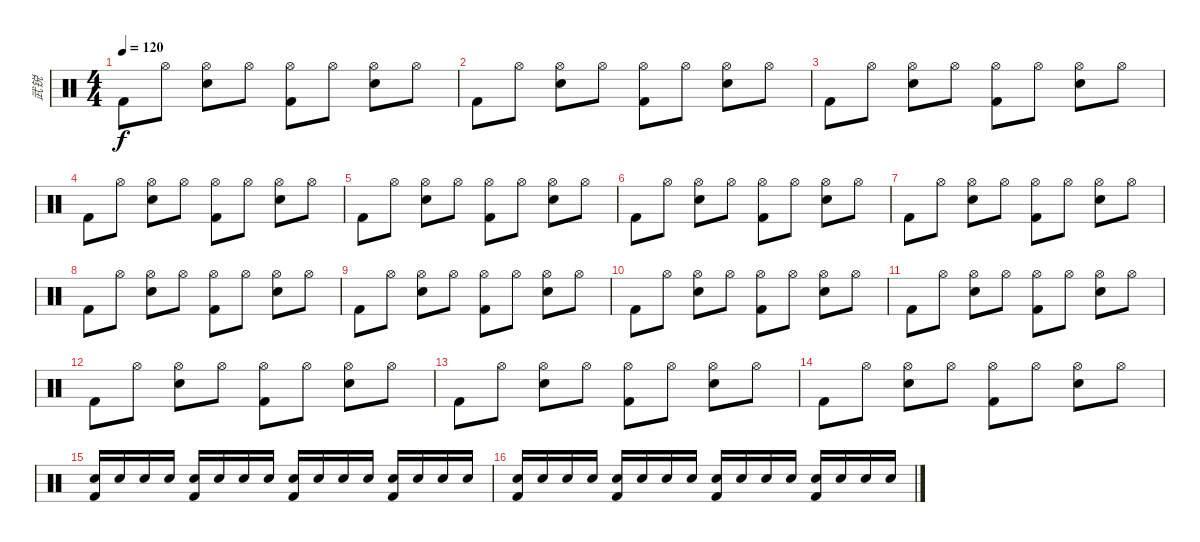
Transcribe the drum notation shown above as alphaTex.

\track ("武锐" "武锐") {instrument percussion}
\staff {score}
\articulation defaults
\ts (4 4)
\tempo 120
\clef neutral
\ks c "Kick (hit) 2".8{dy f} "Hi-Hat (open)".8
("Hi-Hat (open)" "Snare (hit) 2").8 "Hi-Hat (open)".8 ("Hi-Hat (open)" "Kick (hit) 2").8 "Hi-Hat (open)".8 ("Hi-Hat (open)" "Snare (hit) 2").8 "Hi-Hat (open)".8 |
"Kick (hit) 2".8 "Hi-Hat (open)".8 ("Hi-Hat (open)" "Snare (hit) 2").8 "Hi-Hat (open)".8 ("Hi-Hat (open)" "Kick (hit) 2").8 "Hi-Hat (open)".8 ("Hi-Hat (open)" "Snare (hit) 2").8 "Hi-Hat (open)".8 |
"Kick (hit) 2".8 "Hi-Hat (open)".8 ("Hi-Hat (open)" "Snare (hit) 2").8 "Hi-Hat (open)".8 ("Hi-Hat (open)" "Kick (hit) 2").8 "Hi-Hat (open)".8 ("Hi-Hat (open)" "Snare (hit) 2").8 "Hi-Hat (open)".8 |
"Kick (hit) 2".8 "Hi-Hat (open)".8 ("Hi-Hat (open)" "Snare (hit) 2").8 "Hi-Hat (open)".8 ("Hi-Hat (open)" "Kick (hit) 2").8 "Hi-Hat (open)".8 ("Hi-Hat (open)" "Snare (hit) 2").8 "Hi-Hat (open)".8 |
"Kick (hit) 2".8 "Hi-Hat (open)".8 ("Hi-Hat (open)" "Snare (hit) 2").8 "Hi-Hat (open)".8 ("Hi-Hat (open)" "Kick (hit) 2").8 "Hi-Hat (open)".8 ("Hi-Hat (open)" "Snare (hit) 2").8 "Hi-Hat (open)".8 |
"Kick (hit) 2".8 "Hi-Hat (open)".8 ("Hi-Hat (open)" "Snare (hit) 2").8 "Hi-Hat (open)".8 ("Hi-Hat (open)" "Kick (hit) 2").8 "Hi-Hat (open)".8 ("Hi-Hat (open)" "Snare (hit) 2").8 "Hi-Hat (open)".8 |
"Kick (hit) 2".8 "Hi-Hat (open)".8 ("Hi-Hat (open)" "Snare (hit) 2").8 "Hi-Hat (open)".8 ("Hi-Hat (open)" "Kick (hit) 2").8 "Hi-Hat (open)".8 ("Hi-Hat (open)" "Snare (hit) 2").8 "Hi-Hat (open)".8 |
"Kick (hit) 2".8 "Hi-Hat (open)".8 ("Hi-Hat (open)" "Snare (hit) 2").8 "Hi-Hat (open)".8 ("Hi-Hat (open)" "Kick (hit) 2").8 "Hi-Hat (open)".8 ("Hi-Hat (open)" "Snare (hit) 2").8 "Hi-Hat (open)".8 |
"Kick (hit) 2".8 "Hi-Hat (open)".8 ("Hi-Hat (open)" "Snare (hit) 2").8 "Hi-Hat (open)".8 ("Hi-Hat (open)" "Kick (hit) 2").8 "Hi-Hat (open)".8 ("Hi-Hat (open)" "Snare (hit) 2").8 "Hi-Hat (open)".8 |
"Kick (hit) 2".8 "Hi-Hat (open)".8 ("Hi-Hat (open)" "Snare (hit) 2").8 "Hi-Hat (open)".8 ("Hi-Hat (open)" "Kick (hit) 2").8 "Hi-Hat (open)".8 ("Hi-Hat (open)" "Snare (hit) 2").8 "Hi-Hat (open)".8 |
"Kick (hit) 2".8 "Hi-Hat (open)".8 ("Hi-Hat (open)" "Snare (hit) 2").8 "Hi-Hat (open)".8 ("Hi-Hat (open)" "Kick (hit) 2").8 "Hi-Hat (open)".8 ("Hi-Hat (open)" "Snare (hit) 2").8 "Hi-Hat (open)".8 |
"Kick (hit) 2".8 "Hi-Hat (open)".8 ("Hi-Hat (open)" "Snare (hit) 2").8 "Hi-Hat (open)".8 ("Hi-Hat (open)" "Kick (hit) 2").8 "Hi-Hat (open)".8 ("Hi-Hat (open)" "Snare (hit) 2").8 "Hi-Hat (open)".8 |
"Kick (hit) 2".8 "Hi-Hat (open)".8 ("Hi-Hat (open)" "Snare (hit) 2").8 "Hi-Hat (open)".8 ("Hi-Hat (open)" "Kick (hit) 2").8 "Hi-Hat (open)".8 ("Hi-Hat (open)" "Snare (hit) 2").8 "Hi-Hat (open)".8 |
"Kick (hit) 2".8 "Hi-Hat (open)".8 ("Hi-Hat (open)" "Snare (hit) 2").8 "Hi-Hat (open)".8 ("Hi-Hat (open)" "Kick (hit) 2").8 "Hi-Hat (open)".8 ("Hi-Hat (open)" "Snare (hit) 2").8 "Hi-Hat (open)".8 |
("Snare (hit) 2" "Kick (hit) 2").16 "Snare (hit) 2".16 "Snare (hit) 2".16 "Snare (hit) 2".16 ("Snare (hit) 2" "Kick (hit) 2").16 "Snare (hit) 2".16 "Snare (hit) 2".16 "Snare (hit) 2".16 ("Snare (hit) 2" "Kick (hit) 2").16 "Snare (hit) 2".16 "Snare (hit) 2".16 "Snare (hit) 2".16 ("Snare (hit) 2" "Kick (hit) 2").16 "Snare (hit) 2".16 "Snare (hit) 2".16 "Snare (hit) 2".16 |
("Snare (hit) 2" "Kick (hit) 2").16 "Snare (hit) 2".16 "Snare (hit) 2".16 "Snare (hit) 2".16 ("Snare (hit) 2" "Kick (hit) 2").16 "Snare (hit) 2".16 "Snare (hit) 2".16 "Snare (hit) 2".16 ("Snare (hit) 2" "Kick (hit) 2").16 "Snare (hit) 2".16 "Snare (hit) 2".16 "Snare (hit) 2".16 ("Snare (hit) 2" "Kick (hit) 2").16 "Snare (hit) 2".16 "Snare (hit) 2".16 "Snare (hit) 2".16
